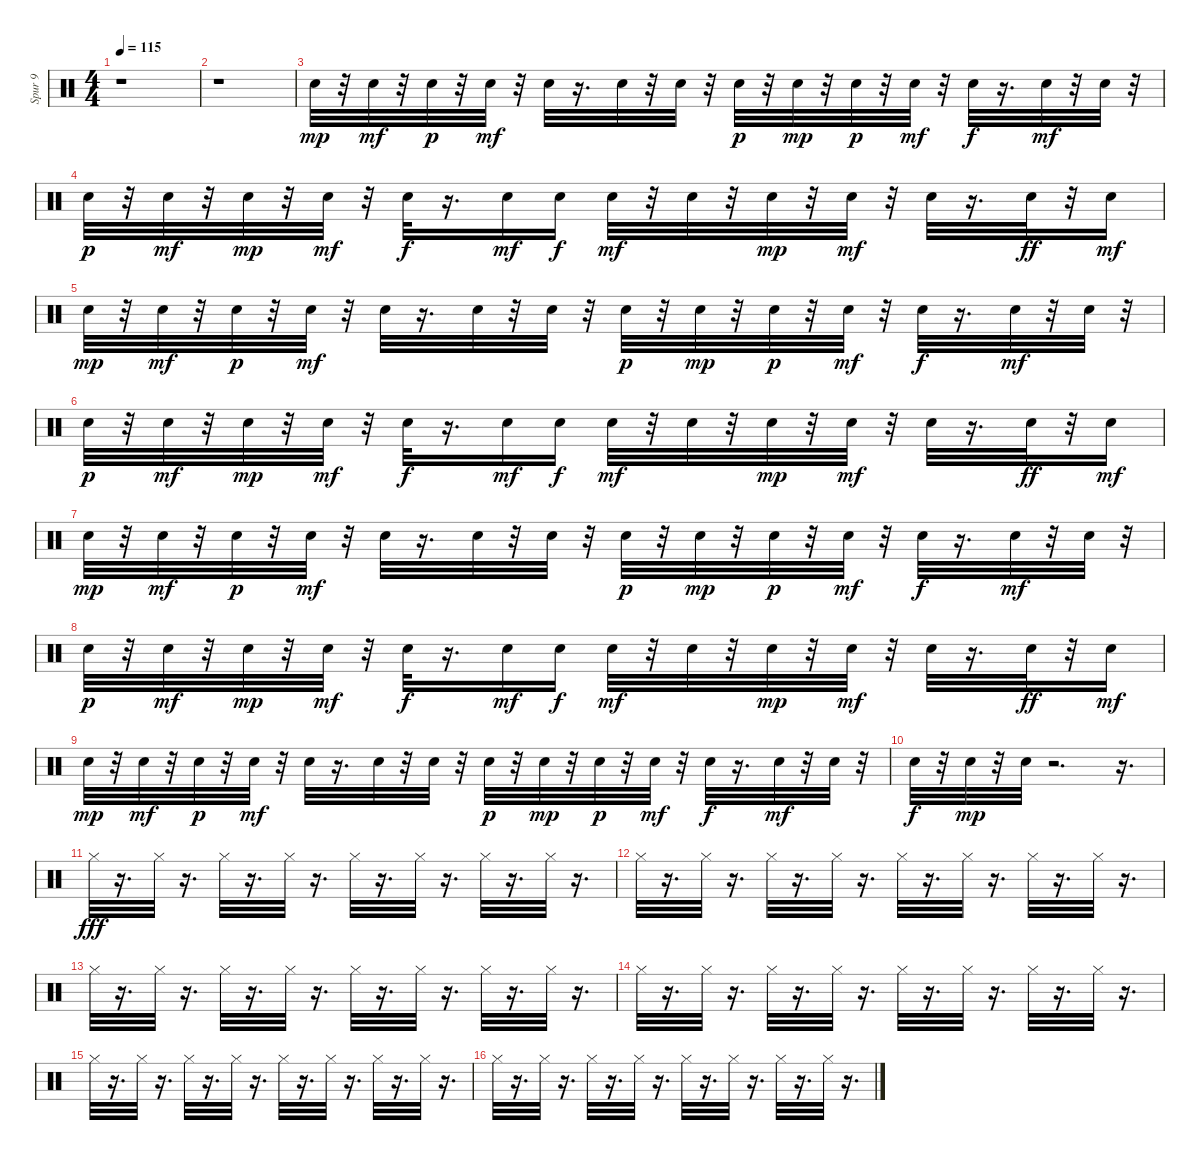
\track ("Spur 9" "Spur 9") {instrument percussion}
\staff {score}
\articulation defaults
\ts (4 4)
\tempo 115
\clef neutral
\ks c
r.1{dy mp} |
r.1 |
"Electric Snare (hit)".32{volume 12} r.32 "Electric Snare (hit)".32{dy mf} r.32 "Electric Snare (hit)".32{dy p} r.32 "Electric Snare (hit)".32{dy mf} r.32 "Electric Snare (hit)".32 r.16{d} "Electric Snare (hit)".32 r.32 "Electric Snare (hit)".32 r.32 "Electric Snare (hit)".32{dy p} r.32 "Electric Snare (hit)".32{dy mp} r.32 "Electric Snare (hit)".32{dy p} r.32 "Electric Snare (hit)".32{dy mf} r.32 "Electric Snare (hit)".32{dy f} r.16{d} "Electric Snare (hit)".32{dy mf} r.32 "Electric Snare (hit)".32 r.32 |
"Electric Snare (hit)".32{dy p} r.32 "Electric Snare (hit)".32{dy mf} r.32 "Electric Snare (hit)".32{dy mp} r.32 "Electric Snare (hit)".32{dy mf} r.32 "Electric Snare (hit)".32{dy f} r.16{d} "Electric Snare (hit)".16{dy mf} "Electric Snare (hit)".16{dy f} "Electric Snare (hit)".32{dy mf} r.32 "Electric Snare (hit)".32 r.32 "Electric Snare (hit)".32{dy mp} r.32 "Electric Snare (hit)".32{dy mf} r.32 "Electric Snare (hit)".32 r.16{d} "Electric Snare (hit)".32{dy ff} r.32 "Electric Snare (hit)".16{dy mf} |
"Electric Snare (hit)".32{dy mp} r.32 "Electric Snare (hit)".32{dy mf} r.32 "Electric Snare (hit)".32{dy p} r.32 "Electric Snare (hit)".32{dy mf} r.32 "Electric Snare (hit)".32 r.16{d} "Electric Snare (hit)".32 r.32 "Electric Snare (hit)".32 r.32 "Electric Snare (hit)".32{dy p} r.32 "Electric Snare (hit)".32{dy mp} r.32 "Electric Snare (hit)".32{dy p} r.32 "Electric Snare (hit)".32{dy mf} r.32 "Electric Snare (hit)".32{dy f} r.16{d} "Electric Snare (hit)".32{dy mf} r.32 "Electric Snare (hit)".32 r.32 |
"Electric Snare (hit)".32{dy p} r.32 "Electric Snare (hit)".32{dy mf} r.32 "Electric Snare (hit)".32{dy mp} r.32 "Electric Snare (hit)".32{dy mf} r.32 "Electric Snare (hit)".32{dy f} r.16{d} "Electric Snare (hit)".16{dy mf} "Electric Snare (hit)".16{dy f} "Electric Snare (hit)".32{dy mf} r.32 "Electric Snare (hit)".32 r.32 "Electric Snare (hit)".32{dy mp} r.32 "Electric Snare (hit)".32{dy mf} r.32 "Electric Snare (hit)".32 r.16{d} "Electric Snare (hit)".32{dy ff} r.32 "Electric Snare (hit)".16{dy mf} |
"Electric Snare (hit)".32{dy mp} r.32 "Electric Snare (hit)".32{dy mf} r.32 "Electric Snare (hit)".32{dy p} r.32 "Electric Snare (hit)".32{dy mf} r.32 "Electric Snare (hit)".32 r.16{d} "Electric Snare (hit)".32 r.32 "Electric Snare (hit)".32 r.32 "Electric Snare (hit)".32{dy p} r.32 "Electric Snare (hit)".32{dy mp} r.32 "Electric Snare (hit)".32{dy p} r.32 "Electric Snare (hit)".32{dy mf} r.32 "Electric Snare (hit)".32{dy f} r.16{d} "Electric Snare (hit)".32{dy mf} r.32 "Electric Snare (hit)".32 r.32 |
"Electric Snare (hit)".32{dy p} r.32 "Electric Snare (hit)".32{dy mf} r.32 "Electric Snare (hit)".32{dy mp} r.32 "Electric Snare (hit)".32{dy mf} r.32 "Electric Snare (hit)".32{dy f} r.16{d} "Electric Snare (hit)".16{dy mf} "Electric Snare (hit)".16{dy f} "Electric Snare (hit)".32{dy mf} r.32 "Electric Snare (hit)".32 r.32 "Electric Snare (hit)".32{dy mp} r.32 "Electric Snare (hit)".32{dy mf} r.32 "Electric Snare (hit)".32 r.16{d} "Electric Snare (hit)".32{dy ff} r.32 "Electric Snare (hit)".16{dy mf} |
"Electric Snare (hit)".32{dy mp} r.32 "Electric Snare (hit)".32{dy mf} r.32 "Electric Snare (hit)".32{dy p} r.32 "Electric Snare (hit)".32{dy mf} r.32 "Electric Snare (hit)".32 r.16{d} "Electric Snare (hit)".32 r.32 "Electric Snare (hit)".32 r.32 "Electric Snare (hit)".32{dy p} r.32 "Electric Snare (hit)".32{dy mp} r.32 "Electric Snare (hit)".32{dy p} r.32 "Electric Snare (hit)".32{dy mf} r.32 "Electric Snare (hit)".32{dy f} r.16{d} "Electric Snare (hit)".32{dy mf} r.32 "Electric Snare (hit)".32 r.32 |
"Electric Snare (hit)".32{dy f volume 14} r.32 "Electric Snare (hit)".32{dy mp} r.32 "Electric Snare (hit)".32 r.2{d} r.16{d} |
"Hi-Hat (closed)".32{dy fff volume 15} r.16{d} "Hi-Hat (closed)".32 r.16{d} "Hi-Hat (closed)".32 r.16{d} "Hi-Hat (closed)".32 r.16{d} "Hi-Hat (closed)".32 r.16{d} "Hi-Hat (closed)".32 r.16{d} "Hi-Hat (closed)".32 r.16{d} "Hi-Hat (closed)".32 r.16{d} |
"Hi-Hat (closed)".32 r.16{d} "Hi-Hat (closed)".32 r.16{d} "Hi-Hat (closed)".32 r.16{d} "Hi-Hat (closed)".32 r.16{d} "Hi-Hat (closed)".32 r.16{d} "Hi-Hat (closed)".32 r.16{d} "Hi-Hat (closed)".32 r.16{d} "Hi-Hat (closed)".32 r.16{d} |
"Hi-Hat (closed)".32 r.16{d} "Hi-Hat (closed)".32 r.16{d} "Hi-Hat (closed)".32 r.16{d} "Hi-Hat (closed)".32 r.16{d} "Hi-Hat (closed)".32 r.16{d} "Hi-Hat (closed)".32 r.16{d} "Hi-Hat (closed)".32 r.16{d} "Hi-Hat (closed)".32 r.16{d} |
"Hi-Hat (closed)".32 r.16{d} "Hi-Hat (closed)".32 r.16{d} "Hi-Hat (closed)".32 r.16{d} "Hi-Hat (closed)".32 r.16{d} "Hi-Hat (closed)".32 r.16{d} "Hi-Hat (closed)".32 r.16{d} "Hi-Hat (closed)".32 r.16{d} "Hi-Hat (closed)".32 r.16{d} |
"Hi-Hat (closed)".32 r.16{d} "Hi-Hat (closed)".32 r.16{d} "Hi-Hat (closed)".32 r.16{d} "Hi-Hat (closed)".32 r.16{d} "Hi-Hat (closed)".32 r.16{d} "Hi-Hat (closed)".32 r.16{d} "Hi-Hat (closed)".32 r.16{d} "Hi-Hat (closed)".32 r.16{d} |
"Hi-Hat (closed)".32 r.16{d} "Hi-Hat (closed)".32 r.16{d} "Hi-Hat (closed)".32 r.16{d} "Hi-Hat (closed)".32 r.16{d} "Hi-Hat (closed)".32 r.16{d} "Hi-Hat (closed)".32 r.16{d} "Hi-Hat (closed)".32 r.16{d} "Hi-Hat (closed)".32 r.16{d}
